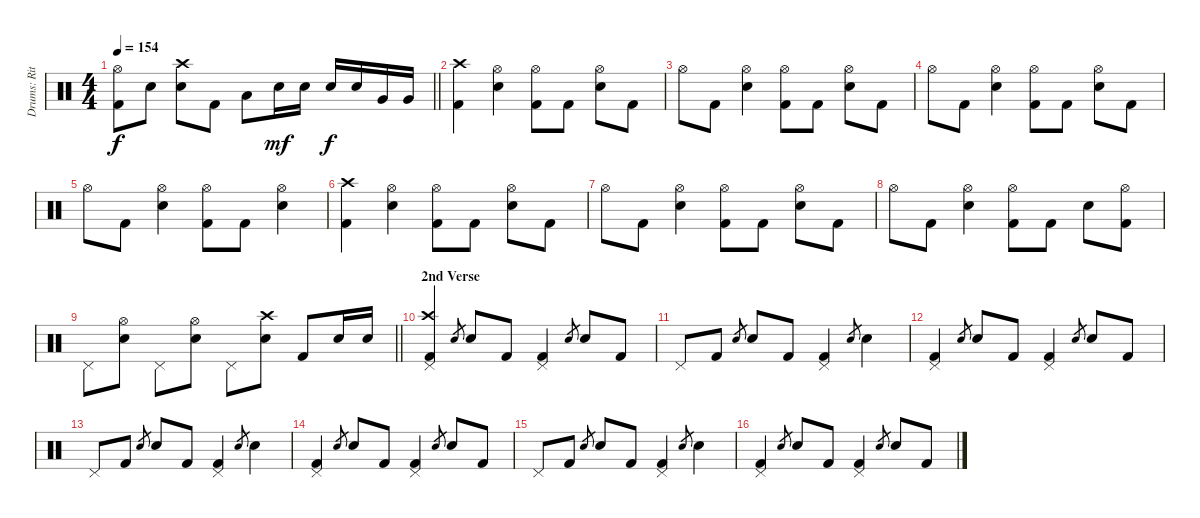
\track ("Drums: Ritsu Tainaka" "Drums: Rit") {instrument percussion}
\staff {score}
\articulation defaults
\ts (4 4)
\tempo 154
\clef neutral
\barLineRight lightlight
\ks c
("Hi-Hat (open)" "Kick (hit) 2").8{dy f} "Electric Snare (hit)".8 ("Crash high (hit)" "Electric Snare (hit)").8 "Kick (hit) 2".8 "Low Tom (hit)".8 "Electric Snare (hit)".16{dy mf} "Electric Snare (hit)".16 "Electric Snare (hit)".16{dy f} "Electric Snare (hit)".16 "Very Low Tom (hit)".16 "Very Low Tom (hit)".16 |
("Crash high (hit)" "Kick (hit) 2").4 ("Hi-Hat (open)" "Electric Snare (hit)").4 ("Hi-Hat (open)" "Kick (hit) 2").8 "Kick (hit) 2".8 ("Hi-Hat (open)" "Electric Snare (hit)").8 "Kick (hit) 2".8 |
"Hi-Hat (open)".8 "Kick (hit) 2".8 ("Hi-Hat (open)" "Electric Snare (hit)").4 ("Hi-Hat (open)" "Kick (hit) 2").8 "Kick (hit) 2".8 ("Hi-Hat (open)" "Electric Snare (hit)").8 "Kick (hit) 2".8 |
"Hi-Hat (open)".8 "Kick (hit) 2".8 ("Hi-Hat (open)" "Electric Snare (hit)").4 ("Hi-Hat (open)" "Kick (hit) 2").8 "Kick (hit) 2".8 ("Hi-Hat (open)" "Electric Snare (hit)").8 "Kick (hit) 2".8 |
"Hi-Hat (open)".8 "Kick (hit) 2".8 ("Hi-Hat (open)" "Electric Snare (hit)").4 ("Hi-Hat (open)" "Kick (hit) 2").8 "Kick (hit) 2".8 ("Hi-Hat (open)" "Electric Snare (hit)").4 |
("Crash high (hit)" "Kick (hit) 2").4 ("Hi-Hat (open)" "Electric Snare (hit)").4 ("Hi-Hat (open)" "Kick (hit) 2").8 "Kick (hit) 2".8 ("Hi-Hat (open)" "Electric Snare (hit)").8 "Kick (hit) 2".8 |
"Hi-Hat (open)".8 "Kick (hit) 2".8 ("Hi-Hat (open)" "Electric Snare (hit)").4 ("Hi-Hat (open)" "Kick (hit) 2").8 "Kick (hit) 2".8 ("Hi-Hat (open)" "Electric Snare (hit)").8 "Kick (hit) 2".8 |
"Hi-Hat (open)".8 "Kick (hit) 2".8 ("Hi-Hat (open)" "Electric Snare (hit)").4 ("Hi-Hat (open)" "Kick (hit) 2").8 "Kick (hit) 2".8 "Electric Snare (hit)".8 ("Hi-Hat (open)" "Kick (hit) 2").8 |
\barLineRight lightlight "Pedal Hi-Hat (hit)".8
("Hi-Hat (open)" "Electric Snare (hit)").8 "Pedal Hi-Hat (hit)".8 ("Hi-Hat (open)" "Electric Snare (hit)").8 "Pedal Hi-Hat (hit)".8 ("Crash high (hit)" "Electric Snare (hit)").8 "Kick (hit) 2".8 "Electric Snare (hit)".16 "Electric Snare (hit)".16 |
\section ("" "2nd Verse")
("Crash high (hit)" "Pedal Hi-Hat (hit)" "Kick (hit) 2").4 "Electric Snare (hit)".8{gr} "Electric Snare (hit)".8 "Kick (hit) 2".8 ("Pedal Hi-Hat (hit)" "Kick (hit) 2").4 "Electric Snare (hit)".8{gr} "Electric Snare (hit)".8 "Kick (hit) 2".8 |
"Pedal Hi-Hat (hit)".8 "Kick (hit) 2".8 "Electric Snare (hit)".8{gr} "Electric Snare (hit)".8 "Kick (hit) 2".8 ("Pedal Hi-Hat (hit)" "Kick (hit) 2").4 "Electric Snare (hit)".8{gr} "Electric Snare (hit)".4 |
("Pedal Hi-Hat (hit)" "Kick (hit) 2").4 "Electric Snare (hit)".8{gr} "Electric Snare (hit)".8 "Kick (hit) 2".8 ("Pedal Hi-Hat (hit)" "Kick (hit) 2").4 "Electric Snare (hit)".8{gr} "Electric Snare (hit)".8 "Kick (hit) 2".8 |
"Pedal Hi-Hat (hit)".8 "Kick (hit) 2".8 "Electric Snare (hit)".8{gr} "Electric Snare (hit)".8 "Kick (hit) 2".8 ("Pedal Hi-Hat (hit)" "Kick (hit) 2").4 "Electric Snare (hit)".8{gr} "Electric Snare (hit)".4 |
("Pedal Hi-Hat (hit)" "Kick (hit) 2").4 "Electric Snare (hit)".8{gr} "Electric Snare (hit)".8 "Kick (hit) 2".8 ("Pedal Hi-Hat (hit)" "Kick (hit) 2").4 "Electric Snare (hit)".8{gr} "Electric Snare (hit)".8 "Kick (hit) 2".8 |
"Pedal Hi-Hat (hit)".8 "Kick (hit) 2".8 "Electric Snare (hit)".8{gr} "Electric Snare (hit)".8 "Kick (hit) 2".8 ("Pedal Hi-Hat (hit)" "Kick (hit) 2").4 "Electric Snare (hit)".8{gr} "Electric Snare (hit)".4 |
("Pedal Hi-Hat (hit)" "Kick (hit) 2").4 "Electric Snare (hit)".8{gr} "Electric Snare (hit)".8 "Kick (hit) 2".8 ("Pedal Hi-Hat (hit)" "Kick (hit) 2").4 "Electric Snare (hit)".8{gr} "Electric Snare (hit)".8 "Kick (hit) 2".8
